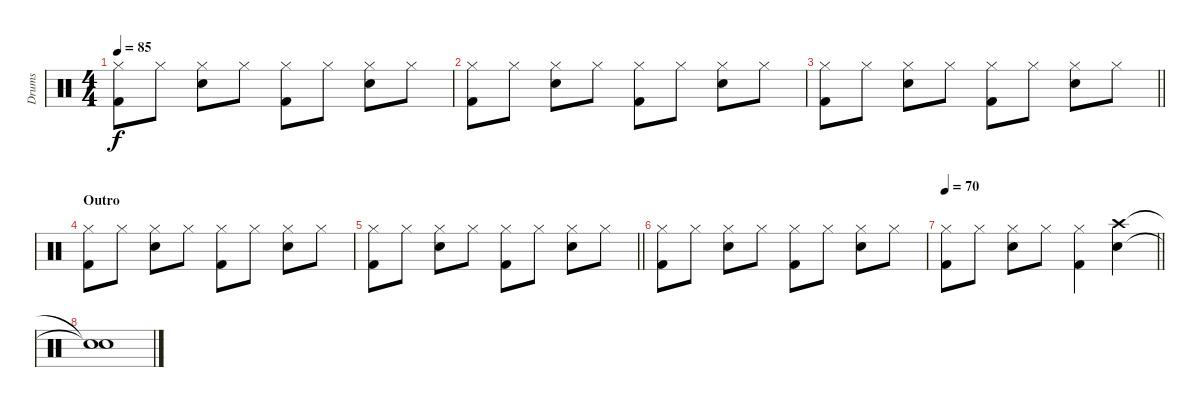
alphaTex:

\track ("Drums" "Drums") {instrument percussion}
\staff {score}
\articulation defaults
\ts (4 4)
\tempo 85
\clef neutral
\ks c
("Hi-Hat (closed)" "Kick (hit) 2").8{dy f} "Hi-Hat (closed)".8 ("Hi-Hat (closed)" "Snare (hit) 2").8 "Hi-Hat (closed)".8 ("Hi-Hat (closed)" "Kick (hit) 2").8 "Hi-Hat (closed)".8 ("Hi-Hat (closed)" "Snare (hit) 2").8 "Hi-Hat (closed)".8 |
("Hi-Hat (closed)" "Kick (hit) 2").8 "Hi-Hat (closed)".8 ("Hi-Hat (closed)" "Snare (hit) 2").8 "Hi-Hat (closed)".8 ("Hi-Hat (closed)" "Kick (hit) 2").8 "Hi-Hat (closed)".8 ("Hi-Hat (closed)" "Snare (hit) 2").8 "Hi-Hat (closed)".8 |
\barLineRight lightlight
("Hi-Hat (closed)" "Kick (hit) 2").8 "Hi-Hat (closed)".8 ("Hi-Hat (closed)" "Snare (hit) 2").8 "Hi-Hat (closed)".8 ("Hi-Hat (closed)" "Kick (hit) 2").8 "Hi-Hat (closed)".8 ("Hi-Hat (closed)" "Snare (hit) 2").8 "Hi-Hat (closed)".8 |
\section ("" "Outro")
("Hi-Hat (closed)" "Kick (hit) 2").8 "Hi-Hat (closed)".8 ("Hi-Hat (closed)" "Snare (hit) 2").8 "Hi-Hat (closed)".8 ("Hi-Hat (closed)" "Kick (hit) 2").8 "Hi-Hat (closed)".8 ("Hi-Hat (closed)" "Snare (hit) 2").8 "Hi-Hat (closed)".8 |
\barLineRight lightlight
("Hi-Hat (closed)" "Kick (hit) 2").8 "Hi-Hat (closed)".8 ("Hi-Hat (closed)" "Snare (hit) 2").8 "Hi-Hat (closed)".8 ("Hi-Hat (closed)" "Kick (hit) 2").8 "Hi-Hat (closed)".8 ("Hi-Hat (closed)" "Snare (hit) 2").8 "Hi-Hat (closed)".8 |
("Hi-Hat (closed)" "Kick (hit) 2").8 "Hi-Hat (closed)".8 ("Hi-Hat (closed)" "Snare (hit) 2").8 "Hi-Hat (closed)".8 ("Hi-Hat (closed)" "Kick (hit) 2").8 "Hi-Hat (closed)".8 ("Hi-Hat (closed)" "Snare (hit) 2").8 "Hi-Hat (closed)".8 |
\tempo 70
\barLineRight lightlight
("Hi-Hat (closed)" "Kick (hit) 2").8 "Hi-Hat (closed)".8 ("Hi-Hat (closed)" "Snare (hit) 2").8 "Hi-Hat (closed)".8 ("Hi-Hat (closed)" "Kick (hit) 2").4 ("Crash high (hit)" "Snare (hit) 2").4 |
("Snare (hit)"{t} "Snare (hit)"{t}).1
